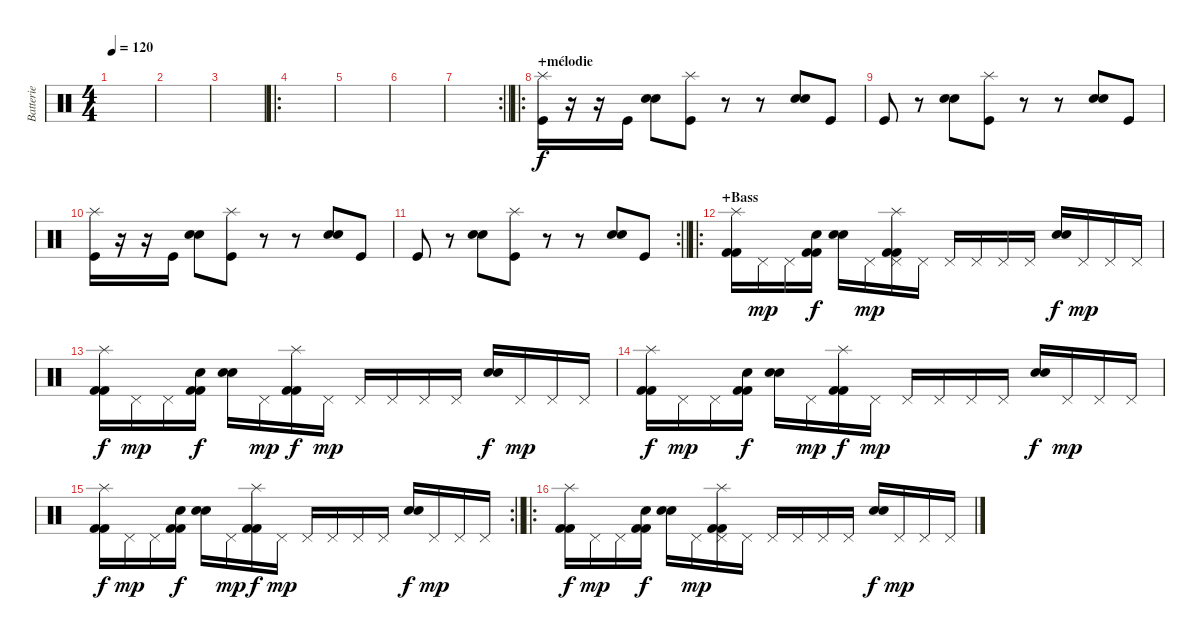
\track ("Batterie" "Batterie") {instrument percussion}
\staff {score}
\articulation defaults
\ts (4 4)
\tempo 120
\clef neutral
\ks c
|
|
|
\ro
|
|
|
\rc 2
\barLineRight lightlight
|
\ro
\section ("" "+mélodie")
("Splash (hit)" "Kick (hit)").16{dy f} r.16 r.16 "Kick (hit)".16 ("Hand Clap (hit)" "Electric Snare (hit)").8 ("Splash (hit)" "Kick (hit)").8 r.8 r.8 ("Hand Clap (hit)" "Electric Snare (hit)").8 "Kick (hit)".8 |
"Kick (hit)".8 r.8 ("Hand Clap (hit)" "Electric Snare (hit)").8 ("Splash (hit)" "Kick (hit)").8 r.8 r.8 ("Hand Clap (hit)" "Electric Snare (hit)").8 "Kick (hit)".8 |
("Splash (hit)" "Kick (hit)").16 r.16 r.16 "Kick (hit)".16 ("Hand Clap (hit)" "Electric Snare (hit)").8 ("Splash (hit)" "Kick (hit)").8 r.8 r.8 ("Hand Clap (hit)" "Electric Snare (hit)").8 "Kick (hit)".8 |
\rc 2
\barLineRight lightlight "Kick (hit)".8
r.8 ("Hand Clap (hit)" "Electric Snare (hit)").8 ("Splash (hit)" "Kick (hit)").8 r.8 r.8 ("Hand Clap (hit)" "Electric Snare (hit)").8 "Kick (hit)".8 |
\ro
\section ("" "+Bass")
("Splash (hit)" "Kick (hit) 2" "Kick (hit) 2").16 "Pedal Hi-Hat (hit)".16{dy mp} "Pedal Hi-Hat (hit)".16 ("Electric Snare (hit)" "Kick (hit) 2" "Kick (hit) 2").16{dy f} ("Snare (hit) 2" "Hand Clap (hit)").16 "Pedal Hi-Hat (hit)".16{dy mp} ("Pedal Hi-Hat (hit)" "Splash (hit)" "Kick (hit) 2" "Kick (hit) 2").16 "Pedal Hi-Hat (hit)".16 "Pedal Hi-Hat (hit)".16 "Pedal Hi-Hat (hit)".16 "Pedal Hi-Hat (hit)".16 "Pedal Hi-Hat (hit)".16 ("Snare (hit) 2" "Hand Clap (hit)").16{dy f} "Pedal Hi-Hat (hit)".16{dy mp} "Pedal Hi-Hat (hit)".16 "Pedal Hi-Hat (hit)".16 |
("Splash (hit)" "Kick (hit) 2" "Kick (hit) 2").16{dy f} "Pedal Hi-Hat (hit)".16{dy mp} "Pedal Hi-Hat (hit)".16 ("Electric Snare (hit)" "Kick (hit) 2" "Kick (hit) 2").16{dy f} ("Snare (hit) 2" "Hand Clap (hit)").16 "Pedal Hi-Hat (hit)".16{dy mp} ("Splash (hit)" "Kick (hit) 2" "Kick (hit) 2").16{dy f} "Pedal Hi-Hat (hit)".16{dy mp} "Pedal Hi-Hat (hit)".16 "Pedal Hi-Hat (hit)".16 "Pedal Hi-Hat (hit)".16 "Pedal Hi-Hat (hit)".16 ("Snare (hit) 2" "Hand Clap (hit)").16{dy f} "Pedal Hi-Hat (hit)".16{dy mp} "Pedal Hi-Hat (hit)".16 "Pedal Hi-Hat (hit)".16 |
("Splash (hit)" "Kick (hit) 2" "Kick (hit) 2").16{dy f} "Pedal Hi-Hat (hit)".16{dy mp} "Pedal Hi-Hat (hit)".16 ("Electric Snare (hit)" "Kick (hit) 2" "Kick (hit) 2").16{dy f} ("Snare (hit) 2" "Hand Clap (hit)").16 "Pedal Hi-Hat (hit)".16{dy mp} ("Splash (hit)" "Kick (hit) 2" "Kick (hit) 2").16{dy f} "Pedal Hi-Hat (hit)".16{dy mp} "Pedal Hi-Hat (hit)".16 "Pedal Hi-Hat (hit)".16 "Pedal Hi-Hat (hit)".16 "Pedal Hi-Hat (hit)".16 ("Snare (hit) 2" "Hand Clap (hit)").16{dy f} "Pedal Hi-Hat (hit)".16{dy mp} "Pedal Hi-Hat (hit)".16 "Pedal Hi-Hat (hit)".16 |
\rc 2
\barLineRight lightlight
("Splash (hit)" "Kick (hit) 2" "Kick (hit) 2").16{dy f} "Pedal Hi-Hat (hit)".16{dy mp} "Pedal Hi-Hat (hit)".16 ("Electric Snare (hit)" "Kick (hit) 2" "Kick (hit) 2").16{dy f} ("Snare (hit) 2" "Hand Clap (hit)").16 "Pedal Hi-Hat (hit)".16{dy mp} ("Splash (hit)" "Kick (hit) 2" "Kick (hit) 2").16{dy f} "Pedal Hi-Hat (hit)".16{dy mp} "Pedal Hi-Hat (hit)".16 "Pedal Hi-Hat (hit)".16 "Pedal Hi-Hat (hit)".16 "Pedal Hi-Hat (hit)".16 ("Snare (hit) 2" "Hand Clap (hit)").16{dy f} "Pedal Hi-Hat (hit)".16{dy mp} "Pedal Hi-Hat (hit)".16 "Pedal Hi-Hat (hit)".16 |
\ro
("Splash (hit)" "Kick (hit) 2" "Kick (hit) 2").16{dy f} "Pedal Hi-Hat (hit)".16{dy mp} "Pedal Hi-Hat (hit)".16 ("Electric Snare (hit)" "Kick (hit) 2" "Kick (hit) 2").16{dy f} ("Snare (hit) 2" "Hand Clap (hit)").16 "Pedal Hi-Hat (hit)".16{dy mp} ("Pedal Hi-Hat (hit)" "Splash (hit)" "Kick (hit) 2" "Kick (hit) 2").16 "Pedal Hi-Hat (hit)".16 "Pedal Hi-Hat (hit)".16 "Pedal Hi-Hat (hit)".16 "Pedal Hi-Hat (hit)".16 "Pedal Hi-Hat (hit)".16 ("Snare (hit) 2" "Hand Clap (hit)").16{dy f} "Pedal Hi-Hat (hit)".16{dy mp} "Pedal Hi-Hat (hit)".16 "Pedal Hi-Hat (hit)".16
